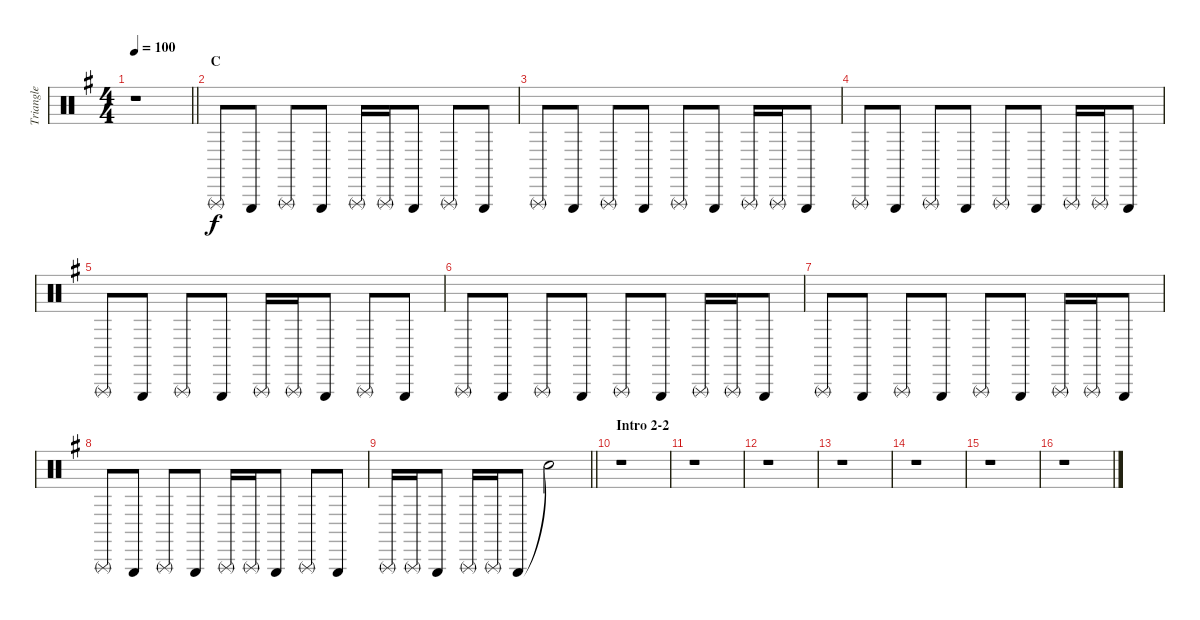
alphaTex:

\track ("Triangle" "Triangle") {instrument percussion}
\staff {score}
\articulation defaults
\ts (4 4)
\tempo 100
\clef neutral
\barLineRight lightlight
\ks g
r.1{dy f} |
\section ("" "C")
"Triangle (rnute)".8 "Triangle (hit)".8 "Triangle (rnute)".8 "Triangle (hit)".8 "Triangle (rnute)".16 "Triangle (rnute)".16 "Triangle (hit)".8 "Triangle (rnute)".8 "Triangle (hit)".8 |
"Triangle (rnute)".8 "Triangle (hit)".8 "Triangle (rnute)".8 "Triangle (hit)".8 "Triangle (rnute)".8 "Triangle (hit)".8 "Triangle (rnute)".16 "Triangle (rnute)".16 "Triangle (hit)".8 |
"Triangle (rnute)".8 "Triangle (hit)".8 "Triangle (rnute)".8 "Triangle (hit)".8 "Triangle (rnute)".8 "Triangle (hit)".8 "Triangle (rnute)".16 "Triangle (rnute)".16 "Triangle (hit)".8 |
"Triangle (rnute)".8 "Triangle (hit)".8 "Triangle (rnute)".8 "Triangle (hit)".8 "Triangle (rnute)".16 "Triangle (rnute)".16 "Triangle (hit)".8 "Triangle (rnute)".8 "Triangle (hit)".8 |
"Triangle (rnute)".8 "Triangle (hit)".8 "Triangle (rnute)".8 "Triangle (hit)".8 "Triangle (rnute)".8 "Triangle (hit)".8 "Triangle (rnute)".16 "Triangle (rnute)".16 "Triangle (hit)".8 |
"Triangle (rnute)".8 "Triangle (hit)".8 "Triangle (rnute)".8 "Triangle (hit)".8 "Triangle (rnute)".8 "Triangle (hit)".8 "Triangle (rnute)".16 "Triangle (rnute)".16 "Triangle (hit)".8 |
"Triangle (rnute)".8 "Triangle (hit)".8 "Triangle (rnute)".8 "Triangle (hit)".8 "Triangle (rnute)".16 "Triangle (rnute)".16 "Triangle (hit)".8 "Triangle (rnute)".8 "Triangle (hit)".8 |
\barLineRight lightlight "Triangle (rnute)".16 "Triangle (rnute)".16 "Triangle (hit)".8 "Triangle (rnute)".16 "Triangle (rnute)".16 "Triangle (hit)".8 "Snare (hit)"{t}.2
|
\section ("" "Intro 2-2")
r.1 |
r.1 |
r.1 |
r.1 |
r.1 |
r.1 |
r.1
